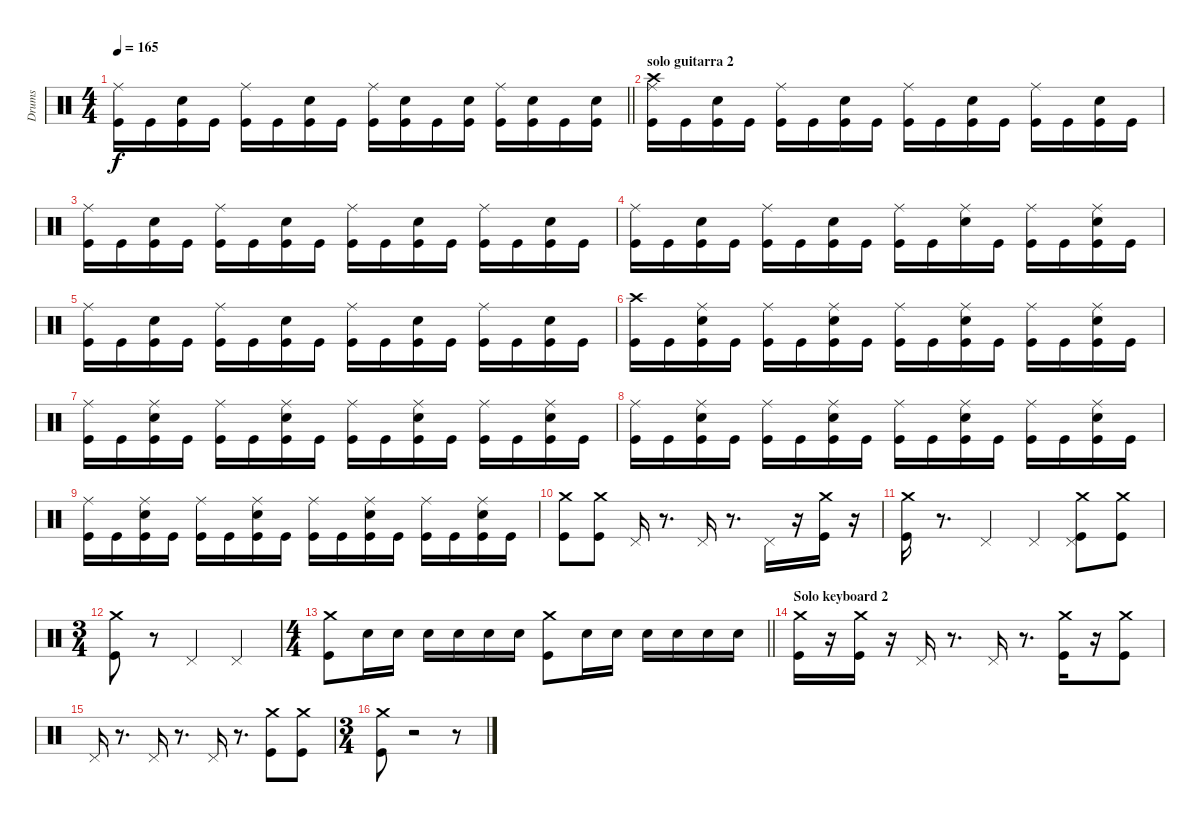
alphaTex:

\track ("Drums" "Drums") {instrument percussion}
\staff {score}
\articulation defaults
\ts (4 4)
\tempo 165
\clef neutral
\barLineRight lightlight
\ks c
("Ride (middle)" "Kick (hit)").16{dy f} "Kick (hit)".16 ("Electric Snare (hit)" "Kick (hit)").16 "Kick (hit)".16 ("Ride (middle)" "Kick (hit)").16 "Kick (hit)".16 ("Electric Snare (hit)" "Kick (hit)").16 "Kick (hit)".16 ("Ride (middle)" "Kick (hit)").16 ("Electric Snare (hit)" "Kick (hit)").16 "Kick (hit)".16 ("Electric Snare (hit)" "Kick (hit)").16 ("Ride (middle)" "Kick (hit)").16 ("Electric Snare (hit)" "Kick (hit)").16 "Kick (hit)".16 ("Electric Snare (hit)" "Kick (hit)").16 |
\section ("" "solo guitarra 2")
("Crash high (hit)" "Ride (middle)" "Kick (hit)").16 "Kick (hit)".16 ("Electric Snare (hit)" "Kick (hit)").16 "Kick (hit)".16 ("Ride (middle)" "Kick (hit)").16 "Kick (hit)".16 ("Electric Snare (hit)" "Kick (hit)").16 "Kick (hit)".16 ("Ride (middle)" "Kick (hit)").16 "Kick (hit)".16 ("Electric Snare (hit)" "Kick (hit)").16 "Kick (hit)".16 ("Ride (middle)" "Kick (hit)").16 "Kick (hit)".16 ("Electric Snare (hit)" "Kick (hit)").16 "Kick (hit)".16 |
("Ride (middle)" "Kick (hit)").16 "Kick (hit)".16 ("Electric Snare (hit)" "Kick (hit)").16 "Kick (hit)".16 ("Ride (middle)" "Kick (hit)").16 "Kick (hit)".16 ("Electric Snare (hit)" "Kick (hit)").16 "Kick (hit)".16 ("Ride (middle)" "Kick (hit)").16 "Kick (hit)".16 ("Electric Snare (hit)" "Kick (hit)").16 "Kick (hit)".16 ("Ride (middle)" "Kick (hit)").16 "Kick (hit)".16 ("Electric Snare (hit)" "Kick (hit)").16 "Kick (hit)".16 |
("Ride (middle)" "Kick (hit)").16 "Kick (hit)".16 ("Electric Snare (hit)" "Kick (hit)").16 "Kick (hit)".16 ("Ride (middle)" "Kick (hit)").16 "Kick (hit)".16 ("Electric Snare (hit)" "Kick (hit)").16 "Kick (hit)".16 ("Ride (middle)" "Kick (hit)").16 "Kick (hit)".16 ("Ride (middle)" "Electric Snare (hit)").16 "Kick (hit)".16 ("Ride (middle)" "Kick (hit)").16 "Kick (hit)".16 ("Ride (middle)" "Electric Snare (hit)" "Kick (hit)").16 "Kick (hit)".16 |
("Ride (middle)" "Kick (hit)").16 "Kick (hit)".16 ("Electric Snare (hit)" "Kick (hit)").16 "Kick (hit)".16 ("Ride (middle)" "Kick (hit)").16 "Kick (hit)".16 ("Electric Snare (hit)" "Kick (hit)").16 "Kick (hit)".16 ("Ride (middle)" "Kick (hit)").16 "Kick (hit)".16 ("Electric Snare (hit)" "Kick (hit)").16 "Kick (hit)".16 ("Ride (middle)" "Kick (hit)").16 "Kick (hit)".16 ("Electric Snare (hit)" "Kick (hit)").16 "Kick (hit)".16 |
("Kick (hit)" "Crash high (hit)").16{volume 14 balance 8} "Kick (hit)".16 ("Ride (middle)" "Kick (hit)" "Electric Snare (hit)").16 "Kick (hit)".16 ("Ride (middle)" "Kick (hit)").16 "Kick (hit)".16 ("Ride (middle)" "Electric Snare (hit)" "Kick (hit)").16 "Kick (hit)".16 ("Ride (middle)" "Kick (hit)").16 "Kick (hit)".16 ("Ride (middle)" "Kick (hit)" "Electric Snare (hit)").16 "Kick (hit)".16 ("Ride (middle)" "Kick (hit)").16 "Kick (hit)".16 ("Ride (middle)" "Kick (hit)" "Electric Snare (hit)").16 "Kick (hit)".16 |
("Ride (middle)" "Kick (hit)").16 "Kick (hit)".16 ("Ride (middle)" "Electric Snare (hit)" "Kick (hit)").16 "Kick (hit)".16 ("Ride (middle)" "Kick (hit)").16 "Kick (hit)".16 ("Ride (middle)" "Electric Snare (hit)" "Kick (hit)").16 "Kick (hit)".16 ("Ride (middle)" "Kick (hit)").16 "Kick (hit)".16 ("Ride (middle)" "Electric Snare (hit)" "Kick (hit)").16 "Kick (hit)".16 ("Ride (middle)" "Kick (hit)").16 "Kick (hit)".16 ("Ride (middle)" "Electric Snare (hit)" "Kick (hit)").16 "Kick (hit)".16 |
("Ride (middle)" "Kick (hit)").16 "Kick (hit)".16 ("Ride (middle)" "Electric Snare (hit)" "Kick (hit)").16 "Kick (hit)".16 ("Ride (middle)" "Kick (hit)").16 "Kick (hit)".16 ("Ride (middle)" "Electric Snare (hit)" "Kick (hit)").16 "Kick (hit)".16 ("Ride (middle)" "Kick (hit)").16 "Kick (hit)".16 ("Ride (middle)" "Electric Snare (hit)" "Kick (hit)").16 "Kick (hit)".16 ("Ride (middle)" "Kick (hit)").16 "Kick (hit)".16 ("Ride (middle)" "Electric Snare (hit)" "Kick (hit)").16 "Kick (hit)".16 |
("Ride (middle)" "Kick (hit)").16 "Kick (hit)".16 ("Ride (middle)" "Electric Snare (hit)" "Kick (hit)").16 "Kick (hit)".16 ("Ride (middle)" "Kick (hit)").16 "Kick (hit)".16 ("Ride (middle)" "Electric Snare (hit)" "Kick (hit)").16 "Kick (hit)".16 ("Ride (middle)" "Kick (hit)").16 "Kick (hit)".16 ("Ride (middle)" "Electric Snare (hit)" "Kick (hit)").16 "Kick (hit)".16 ("Ride (middle)" "Kick (hit)").16{volume 14 balance 8} "Kick (hit)".16 ("Ride (middle)" "Electric Snare (hit)" "Kick (hit)").16 "Kick (hit)".16 |
("Crash medium (hit)" "Kick (hit)").8 ("Kick (hit)" "Crash medium (hit)").8 "Pedal Hi-Hat (hit)".16 r.8{d} "Pedal Hi-Hat (hit)".16 r.8{d} "Pedal Hi-Hat (hit)".16 r.16 ("Crash medium (hit)" "Kick (hit)").16 r.16 |
("Kick (hit)" "Crash medium (hit)").16 r.8{d} "Pedal Hi-Hat (hit)".4 "Pedal Hi-Hat (hit)".4 ("Pedal Hi-Hat (hit)" "Crash medium (hit)" "Kick (hit)").8 ("Kick (hit)" "Crash medium (hit)").8 |
\ts (3 4)
("Crash medium (hit)" "Kick (hit)").8 r.8 "Pedal Hi-Hat (hit)".4 "Pedal Hi-Hat (hit)".4 |
\ts (4 4)
\barLineRight lightlight
("Crash medium (hit)" "Kick (hit)").8 "Electric Snare (hit)".16 "Electric Snare (hit)".16 "Electric Snare (hit)".16 "Electric Snare (hit)".16 "Electric Snare (hit)".16 "Electric Snare (hit)".16 ("Kick (hit)" "Crash medium (hit)").8 "Electric Snare (hit)".16 "Electric Snare (hit)".16 "Electric Snare (hit)".16 "Electric Snare (hit)".16 "Electric Snare (hit)".16 "Electric Snare (hit)".16 |
\section ("" "Solo keyboard 2")
("Crash medium (hit)" "Kick (hit)").16 r.16 ("Kick (hit)" "Crash medium (hit)").16 r.16 "Pedal Hi-Hat (hit)".16 r.8{d} "Pedal Hi-Hat (hit)".16 r.8{d} ("Crash medium (hit)" "Kick (hit)").16 r.16 ("Kick (hit)" "Crash medium (hit)").8 |
"Pedal Hi-Hat (hit)".16 r.8{d} "Pedal Hi-Hat (hit)".16 r.8{d} "Pedal Hi-Hat (hit)".16 r.8{d} ("Crash medium (hit)" "Kick (hit)").8 ("Kick (hit)" "Crash medium (hit)").8 |
\ts (3 4)
("Crash medium (hit)" "Kick (hit)").8 r.2 r.8
